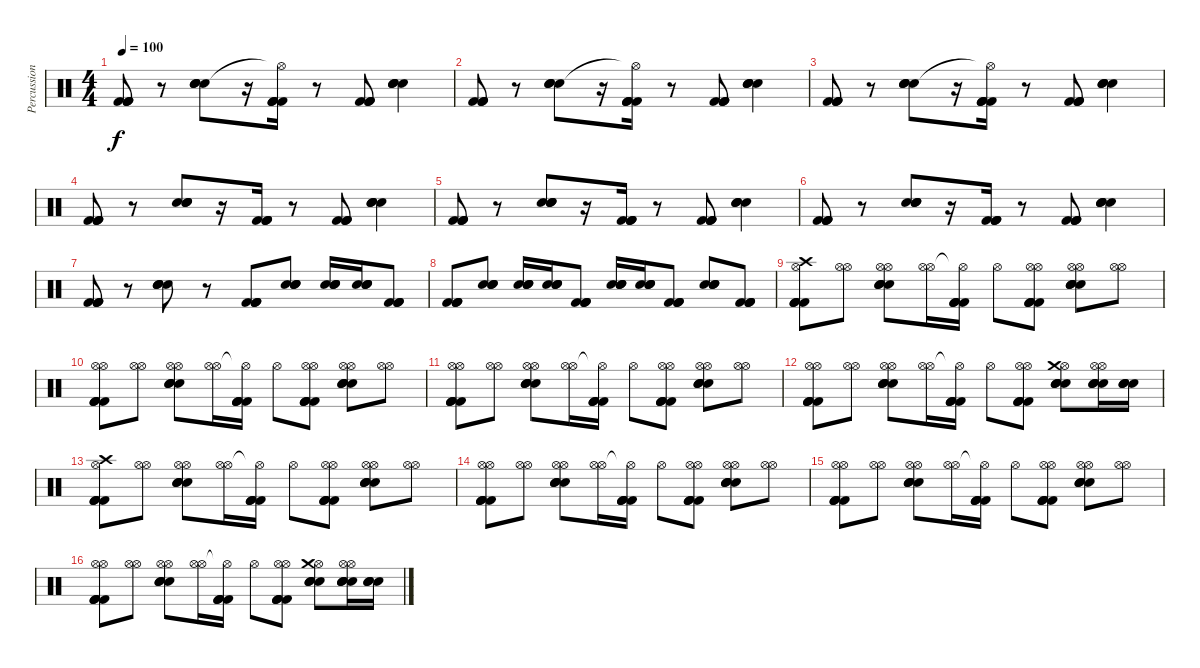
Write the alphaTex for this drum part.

\track ("Percussion" "Percussion") {instrument percussion}
\staff {score}
\articulation defaults
\ts (4 4)
\tempo 100
\clef neutral
\ks c
("Kick (hit) 2" "Kick (hit) 2" "Kick (hit) 2" "Kick (hit) 2").8{dy f} r.8 ("Electric Snare (hit)" "Electric Snare (hit)" "Electric Snare (hit)" "Electric Snare (hit)").8 r.16 ("Hi-Hat (open)"{t} "Kick (hit) 2" "Kick (hit) 2" "Kick (hit) 2" "Kick (hit) 2").16 r.8 ("Kick (hit) 2" "Kick (hit) 2" "Kick (hit) 2" "Kick (hit) 2").8 ("Electric Snare (hit)" "Electric Snare (hit)" "Electric Snare (hit)" "Electric Snare (hit)").4 |
("Kick (hit) 2" "Kick (hit) 2" "Kick (hit) 2" "Kick (hit) 2").8 r.8 ("Electric Snare (hit)" "Electric Snare (hit)" "Electric Snare (hit)" "Electric Snare (hit)").8 r.16 ("Hi-Hat (open)"{t} "Kick (hit) 2" "Kick (hit) 2" "Kick (hit) 2" "Kick (hit) 2").16 r.8 ("Kick (hit) 2" "Kick (hit) 2" "Kick (hit) 2" "Kick (hit) 2").8 ("Electric Snare (hit)" "Electric Snare (hit)" "Electric Snare (hit)" "Electric Snare (hit)").4 |
("Kick (hit) 2" "Kick (hit) 2" "Kick (hit) 2" "Kick (hit) 2").8 r.8 ("Electric Snare (hit)" "Electric Snare (hit)" "Electric Snare (hit)" "Electric Snare (hit)").8 r.16 ("Hi-Hat (open)"{t} "Kick (hit) 2" "Kick (hit) 2" "Kick (hit) 2" "Kick (hit) 2").16 r.8 ("Kick (hit) 2" "Kick (hit) 2" "Kick (hit) 2" "Kick (hit) 2").8 ("Electric Snare (hit)" "Electric Snare (hit)" "Electric Snare (hit)" "Electric Snare (hit)").4 |
("Kick (hit) 2" "Kick (hit) 2" "Kick (hit) 2" "Kick (hit) 2").8 r.8 ("Electric Snare (hit)" "Electric Snare (hit)" "Electric Snare (hit)" "Electric Snare (hit)").8 r.16 ("Kick (hit) 2" "Kick (hit) 2" "Kick (hit) 2" "Kick (hit) 2").16 r.8 ("Kick (hit) 2" "Kick (hit) 2" "Kick (hit) 2" "Kick (hit) 2").8 ("Electric Snare (hit)" "Electric Snare (hit)" "Electric Snare (hit)" "Electric Snare (hit)").4 |
("Kick (hit) 2" "Kick (hit) 2" "Kick (hit) 2" "Kick (hit) 2").8 r.8 ("Electric Snare (hit)" "Electric Snare (hit)" "Electric Snare (hit)" "Electric Snare (hit)").8 r.16 ("Kick (hit) 2" "Kick (hit) 2" "Kick (hit) 2" "Kick (hit) 2").16 r.8 ("Kick (hit) 2" "Kick (hit) 2" "Kick (hit) 2" "Kick (hit) 2").8 ("Electric Snare (hit)" "Electric Snare (hit)" "Electric Snare (hit)" "Electric Snare (hit)").4 |
("Kick (hit) 2" "Kick (hit) 2" "Kick (hit) 2" "Kick (hit) 2").8 r.8 ("Electric Snare (hit)" "Electric Snare (hit)" "Electric Snare (hit)" "Electric Snare (hit)").8 r.16 ("Kick (hit) 2" "Kick (hit) 2" "Kick (hit) 2" "Kick (hit) 2").16 r.8 ("Kick (hit) 2" "Kick (hit) 2" "Kick (hit) 2" "Kick (hit) 2").8 ("Electric Snare (hit)" "Electric Snare (hit)" "Electric Snare (hit)" "Electric Snare (hit)").4 |
("Kick (hit) 2" "Kick (hit) 2" "Kick (hit) 2" "Kick (hit) 2").8 r.8 ("Electric Snare (hit)" "Electric Snare (hit)" "Electric Snare (hit)" "Electric Snare (hit)").8 r.8 ("Kick (hit) 2" "Kick (hit) 2" "Kick (hit) 2" "Kick (hit) 2").8 ("Electric Snare (hit)" "Electric Snare (hit)" "Electric Snare (hit)" "Electric Snare (hit)").8 ("Electric Snare (hit)" "Electric Snare (hit)" "Electric Snare (hit)" "Electric Snare (hit)").16 ("Electric Snare (hit)" "Electric Snare (hit)" "Electric Snare (hit)" "Electric Snare (hit)").16 ("Kick (hit) 2" "Kick (hit) 2" "Kick (hit) 2" "Kick (hit) 2").8 |
("Kick (hit) 2" "Kick (hit) 2" "Kick (hit) 2" "Kick (hit) 2").8 ("Electric Snare (hit)" "Electric Snare (hit)" "Electric Snare (hit)" "Electric Snare (hit)").8 ("Electric Snare (hit)" "Electric Snare (hit)" "Electric Snare (hit)" "Electric Snare (hit)").16 ("Electric Snare (hit)" "Electric Snare (hit)" "Electric Snare (hit)" "Electric Snare (hit)").16 ("Kick (hit) 2" "Kick (hit) 2" "Kick (hit) 2" "Kick (hit) 2").8 ("Electric Snare (hit)" "Electric Snare (hit)" "Electric Snare (hit)" "Electric Snare (hit)").16 ("Electric Snare (hit)" "Electric Snare (hit)" "Electric Snare (hit)" "Electric Snare (hit)").16 ("Kick (hit) 2" "Kick (hit) 2" "Kick (hit) 2" "Kick (hit) 2").8 ("Electric Snare (hit)" "Electric Snare (hit)" "Electric Snare (hit)" "Electric Snare (hit)").8 ("Kick (hit) 2" "Kick (hit) 2" "Kick (hit) 2" "Kick (hit) 2").8 |
("Hi-Hat (open)" "Kick (hit) 2" "Kick (hit) 2" "Kick (hit) 2" "Kick (hit) 2" "Crash high (hit)").8 ("Hi-Hat (open)" "Hi-Hat (open)").8 ("Hi-Hat (open)" "Electric Snare (hit)" "Electric Snare (hit)" "Electric Snare (hit)" "Electric Snare (hit)" "Hi-Hat (open)").8 ("Hi-Hat (open)" "Hi-Hat (open)").16 ("Hi-Hat (open)"{t} "Kick (hit) 2" "Kick (hit) 2" "Kick (hit) 2" "Kick (hit) 2").16 "Hi-Hat (open)".8 ("Hi-Hat (open)" "Kick (hit) 2" "Kick (hit) 2" "Kick (hit) 2" "Kick (hit) 2" "Hi-Hat (open)").8 ("Hi-Hat (open)" "Electric Snare (hit)" "Electric Snare (hit)" "Electric Snare (hit)" "Electric Snare (hit)" "Hi-Hat (open)").8 ("Hi-Hat (open)" "Hi-Hat (open)").8 |
("Hi-Hat (open)" "Kick (hit) 2" "Kick (hit) 2" "Kick (hit) 2" "Kick (hit) 2" "Hi-Hat (open)").8 ("Hi-Hat (open)" "Hi-Hat (open)").8 ("Hi-Hat (open)" "Electric Snare (hit)" "Electric Snare (hit)" "Electric Snare (hit)" "Electric Snare (hit)" "Hi-Hat (open)").8 ("Hi-Hat (open)" "Hi-Hat (open)").16 ("Hi-Hat (open)"{t} "Kick (hit) 2" "Kick (hit) 2" "Kick (hit) 2" "Kick (hit) 2").16 "Hi-Hat (open)".8 ("Hi-Hat (open)" "Kick (hit) 2" "Kick (hit) 2" "Kick (hit) 2" "Kick (hit) 2" "Hi-Hat (open)").8 ("Hi-Hat (open)" "Electric Snare (hit)" "Electric Snare (hit)" "Electric Snare (hit)" "Electric Snare (hit)" "Hi-Hat (open)").8 ("Hi-Hat (open)" "Hi-Hat (open)").8 |
("Hi-Hat (open)" "Kick (hit) 2" "Kick (hit) 2" "Kick (hit) 2" "Kick (hit) 2" "Hi-Hat (open)").8 ("Hi-Hat (open)" "Hi-Hat (open)").8 ("Hi-Hat (open)" "Electric Snare (hit)" "Electric Snare (hit)" "Electric Snare (hit)" "Electric Snare (hit)" "Hi-Hat (open)").8 ("Hi-Hat (open)" "Hi-Hat (open)").16 ("Hi-Hat (open)"{t} "Kick (hit) 2" "Kick (hit) 2" "Kick (hit) 2" "Kick (hit) 2").16 "Hi-Hat (open)".8 ("Hi-Hat (open)" "Kick (hit) 2" "Kick (hit) 2" "Kick (hit) 2" "Kick (hit) 2" "Hi-Hat (open)").8 ("Hi-Hat (open)" "Electric Snare (hit)" "Electric Snare (hit)" "Electric Snare (hit)" "Electric Snare (hit)" "Hi-Hat (open)").8 ("Hi-Hat (open)" "Hi-Hat (open)").8 |
("Hi-Hat (open)" "Kick (hit) 2" "Kick (hit) 2" "Kick (hit) 2" "Kick (hit) 2" "Hi-Hat (open)").8 ("Hi-Hat (open)" "Hi-Hat (open)").8 ("Hi-Hat (open)" "Electric Snare (hit)" "Electric Snare (hit)" "Electric Snare (hit)" "Electric Snare (hit)" "Hi-Hat (open)").8 ("Hi-Hat (open)" "Hi-Hat (open)").16 ("Hi-Hat (open)"{t} "Kick (hit) 2" "Kick (hit) 2" "Kick (hit) 2" "Kick (hit) 2").16 "Hi-Hat (open)".8 ("Hi-Hat (open)" "Kick (hit) 2" "Kick (hit) 2" "Kick (hit) 2" "Kick (hit) 2" "Hi-Hat (open)").8 ("Hi-Hat (open)" "Electric Snare (hit)" "Electric Snare (hit)" "Electric Snare (hit)" "Electric Snare (hit)" "Crash medium (hit)").8 ("Hi-Hat (open)" "Electric Snare (hit)" "Electric Snare (hit)" "Electric Snare (hit)" "Electric Snare (hit)" "Hi-Hat (open)").16 ("Electric Snare (hit)" "Electric Snare (hit)" "Electric Snare (hit)" "Electric Snare (hit)").16 |
("Hi-Hat (open)" "Kick (hit) 2" "Kick (hit) 2" "Kick (hit) 2" "Kick (hit) 2" "Crash high (hit)").8 ("Hi-Hat (open)" "Hi-Hat (open)").8 ("Hi-Hat (open)" "Electric Snare (hit)" "Electric Snare (hit)" "Electric Snare (hit)" "Electric Snare (hit)" "Hi-Hat (open)").8 ("Hi-Hat (open)" "Hi-Hat (open)").16 ("Hi-Hat (open)"{t} "Kick (hit) 2" "Kick (hit) 2" "Kick (hit) 2" "Kick (hit) 2").16 "Hi-Hat (open)".8 ("Hi-Hat (open)" "Kick (hit) 2" "Kick (hit) 2" "Kick (hit) 2" "Kick (hit) 2" "Hi-Hat (open)").8 ("Hi-Hat (open)" "Electric Snare (hit)" "Electric Snare (hit)" "Electric Snare (hit)" "Electric Snare (hit)" "Hi-Hat (open)").8 ("Hi-Hat (open)" "Hi-Hat (open)").8 |
("Hi-Hat (open)" "Kick (hit) 2" "Kick (hit) 2" "Kick (hit) 2" "Kick (hit) 2" "Hi-Hat (open)").8 ("Hi-Hat (open)" "Hi-Hat (open)").8 ("Hi-Hat (open)" "Electric Snare (hit)" "Electric Snare (hit)" "Electric Snare (hit)" "Electric Snare (hit)" "Hi-Hat (open)").8 ("Hi-Hat (open)" "Hi-Hat (open)").16 ("Hi-Hat (open)"{t} "Kick (hit) 2" "Kick (hit) 2" "Kick (hit) 2" "Kick (hit) 2").16 "Hi-Hat (open)".8 ("Hi-Hat (open)" "Kick (hit) 2" "Kick (hit) 2" "Kick (hit) 2" "Kick (hit) 2" "Hi-Hat (open)").8 ("Hi-Hat (open)" "Electric Snare (hit)" "Electric Snare (hit)" "Electric Snare (hit)" "Electric Snare (hit)" "Hi-Hat (open)").8 ("Hi-Hat (open)" "Hi-Hat (open)").8 |
("Hi-Hat (open)" "Kick (hit) 2" "Kick (hit) 2" "Kick (hit) 2" "Kick (hit) 2" "Hi-Hat (open)").8 ("Hi-Hat (open)" "Hi-Hat (open)").8 ("Hi-Hat (open)" "Electric Snare (hit)" "Electric Snare (hit)" "Electric Snare (hit)" "Electric Snare (hit)" "Hi-Hat (open)").8 ("Hi-Hat (open)" "Hi-Hat (open)").16 ("Hi-Hat (open)"{t} "Kick (hit) 2" "Kick (hit) 2" "Kick (hit) 2" "Kick (hit) 2").16 "Hi-Hat (open)".8 ("Hi-Hat (open)" "Kick (hit) 2" "Kick (hit) 2" "Kick (hit) 2" "Kick (hit) 2" "Hi-Hat (open)").8 ("Hi-Hat (open)" "Electric Snare (hit)" "Electric Snare (hit)" "Electric Snare (hit)" "Electric Snare (hit)" "Hi-Hat (open)").8 ("Hi-Hat (open)" "Hi-Hat (open)").8 |
("Hi-Hat (open)" "Kick (hit) 2" "Kick (hit) 2" "Kick (hit) 2" "Kick (hit) 2" "Hi-Hat (open)").8 ("Hi-Hat (open)" "Hi-Hat (open)").8 ("Hi-Hat (open)" "Electric Snare (hit)" "Electric Snare (hit)" "Electric Snare (hit)" "Electric Snare (hit)" "Hi-Hat (open)").8 ("Hi-Hat (open)" "Hi-Hat (open)").16 ("Hi-Hat (open)"{t} "Kick (hit) 2" "Kick (hit) 2" "Kick (hit) 2" "Kick (hit) 2").16 "Hi-Hat (open)".8 ("Hi-Hat (open)" "Kick (hit) 2" "Kick (hit) 2" "Kick (hit) 2" "Kick (hit) 2" "Hi-Hat (open)").8 ("Hi-Hat (open)" "Electric Snare (hit)" "Electric Snare (hit)" "Electric Snare (hit)" "Electric Snare (hit)" "Crash medium (hit)").8 ("Hi-Hat (open)" "Electric Snare (hit)" "Electric Snare (hit)" "Electric Snare (hit)" "Electric Snare (hit)" "Hi-Hat (open)").16 ("Electric Snare (hit)" "Electric Snare (hit)" "Electric Snare (hit)" "Electric Snare (hit)").16
